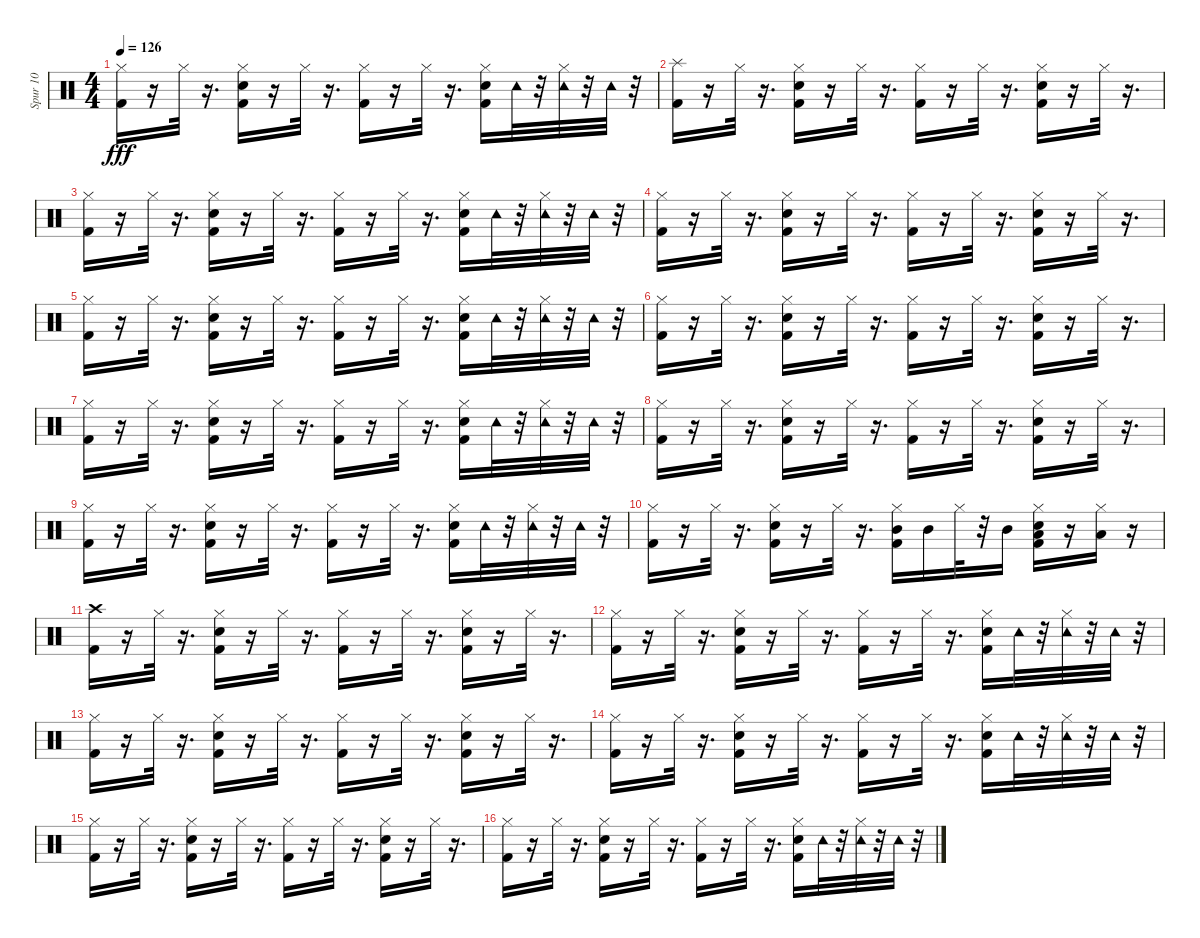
\track ("Spur 10" "Spur 10") {instrument percussion}
\staff {score}
\articulation defaults
\ts (4 4)
\tempo 126
\clef neutral
\ks c
("Hi-Hat (closed)" "Kick (hit) 2").16{dy fff} r.16 "Hi-Hat (closed)".32 r.16{d} ("Hi-Hat (closed)" "Snare (hit) 2" "Kick (hit) 2").16 r.16 "Hi-Hat (closed)".32 r.16{d} ("Hi-Hat (closed)" "Kick (hit) 2").16 r.16 "Hi-Hat (closed)".32 r.16{d} ("Hi-Hat (closed)" "Snare (hit) 2" "Kick (hit) 2").16 "Tambourine (hit)".32 r.32 ("Hi-Hat (closed)" "Tambourine (hit)").32 r.32 "Tambourine (hit)".32 r.32 |
("Splash (hit)" "Kick (hit) 2").16 r.16 "Hi-Hat (closed)".32 r.16{d} ("Hi-Hat (closed)" "Kick (hit) 2" "Snare (hit) 2").16 r.16 "Hi-Hat (closed)".32 r.16{d} ("Hi-Hat (closed)" "Kick (hit) 2").16 r.16 "Hi-Hat (closed)".32 r.16{d} ("Hi-Hat (closed)" "Snare (hit) 2" "Kick (hit) 2").16 r.16 "Hi-Hat (closed)".32 r.16{d} |
("Hi-Hat (closed)" "Kick (hit) 2").16 r.16 "Hi-Hat (closed)".32 r.16{d} ("Hi-Hat (closed)" "Snare (hit) 2" "Kick (hit) 2").16 r.16 "Hi-Hat (closed)".32 r.16{d} ("Hi-Hat (closed)" "Kick (hit) 2").16 r.16 "Hi-Hat (closed)".32 r.16{d} ("Hi-Hat (closed)" "Snare (hit) 2" "Kick (hit) 2").16 "Tambourine (hit)".32 r.32 ("Hi-Hat (closed)" "Tambourine (hit)").32 r.32 "Tambourine (hit)".32 r.32 |
("Hi-Hat (closed)" "Kick (hit) 2").16 r.16 "Hi-Hat (closed)".32 r.16{d} ("Hi-Hat (closed)" "Kick (hit) 2" "Snare (hit) 2").16 r.16 "Hi-Hat (closed)".32 r.16{d} ("Hi-Hat (closed)" "Kick (hit) 2").16 r.16 "Hi-Hat (closed)".32 r.16{d} ("Hi-Hat (closed)" "Snare (hit) 2" "Kick (hit) 2").16 r.16 "Hi-Hat (closed)".32 r.16{d} |
("Hi-Hat (closed)" "Kick (hit) 2").16 r.16 "Hi-Hat (closed)".32 r.16{d} ("Hi-Hat (closed)" "Snare (hit) 2" "Kick (hit) 2").16 r.16 "Hi-Hat (closed)".32 r.16{d} ("Hi-Hat (closed)" "Kick (hit) 2").16 r.16 "Hi-Hat (closed)".32 r.16{d} ("Hi-Hat (closed)" "Snare (hit) 2" "Kick (hit) 2").16 "Tambourine (hit)".32 r.32 ("Hi-Hat (closed)" "Tambourine (hit)").32 r.32 "Tambourine (hit)".32 r.32 |
("Hi-Hat (closed)" "Kick (hit) 2").16 r.16 "Hi-Hat (closed)".32 r.16{d} ("Hi-Hat (closed)" "Kick (hit) 2" "Snare (hit) 2").16 r.16 "Hi-Hat (closed)".32 r.16{d} ("Hi-Hat (closed)" "Kick (hit) 2").16 r.16 "Hi-Hat (closed)".32 r.16{d} ("Hi-Hat (closed)" "Snare (hit) 2" "Kick (hit) 2").16 r.16 "Hi-Hat (closed)".32 r.16{d} |
("Hi-Hat (closed)" "Kick (hit) 2").16 r.16 "Hi-Hat (closed)".32 r.16{d} ("Hi-Hat (closed)" "Snare (hit) 2" "Kick (hit) 2").16 r.16 "Hi-Hat (closed)".32 r.16{d} ("Hi-Hat (closed)" "Kick (hit) 2").16 r.16 "Hi-Hat (closed)".32 r.16{d} ("Hi-Hat (closed)" "Snare (hit) 2" "Kick (hit) 2").16 "Tambourine (hit)".32 r.32 ("Hi-Hat (closed)" "Tambourine (hit)").32 r.32 "Tambourine (hit)".32 r.32 |
("Hi-Hat (closed)" "Kick (hit) 2").16 r.16 "Hi-Hat (closed)".32 r.16{d} ("Hi-Hat (closed)" "Kick (hit) 2" "Snare (hit) 2").16 r.16 "Hi-Hat (closed)".32 r.16{d} ("Hi-Hat (closed)" "Kick (hit) 2").16 r.16 "Hi-Hat (closed)".32 r.16{d} ("Hi-Hat (closed)" "Snare (hit) 2" "Kick (hit) 2").16 r.16 "Hi-Hat (closed)".32 r.16{d} |
("Hi-Hat (closed)" "Kick (hit) 2").16 r.16 "Hi-Hat (closed)".32 r.16{d} ("Hi-Hat (closed)" "Snare (hit) 2" "Kick (hit) 2").16 r.16 "Hi-Hat (closed)".32 r.16{d} ("Hi-Hat (closed)" "Kick (hit) 2").16 r.16 "Hi-Hat (closed)".32 r.16{d} ("Hi-Hat (closed)" "Snare (hit) 2" "Kick (hit) 2").16 "Tambourine (hit)".32 r.32 ("Hi-Hat (closed)" "Tambourine (hit)").32 r.32 "Tambourine (hit)".32 r.32 |
("Hi-Hat (closed)" "Kick (hit) 2").16 r.16 "Hi-Hat (closed)".32 r.16{d} ("Hi-Hat (closed)" "Kick (hit) 2" "Snare (hit) 2").16 r.16 "Hi-Hat (closed)".32 r.16{d} ("Hi-Hat (closed)" "Mid Tom (hit)" "Kick (hit) 2").16 "Mid Tom (hit)".16 "Hi-Hat (closed)".32 r.32 "Mid Tom (hit)".16 ("Hi-Hat (closed)" "Low Tom (hit)" "Snare (hit) 2" "Kick (hit) 2").16 r.16 ("Hi-Hat (closed)" "Low Tom (hit)").16 r.16 |
("Crash high (hit)" "Kick (hit) 2").16 r.16 "Hi-Hat (closed)".32 r.16{d} ("Hi-Hat (closed)" "Kick (hit) 2" "Snare (hit) 2").16 r.16 "Hi-Hat (closed)".32 r.16{d} ("Hi-Hat (closed)" "Kick (hit) 2").16 r.16 "Hi-Hat (closed)".32 r.16{d} ("Hi-Hat (closed)" "Snare (hit) 2" "Kick (hit) 2").16 r.16 "Hi-Hat (closed)".32 r.16{d} |
("Hi-Hat (closed)" "Kick (hit) 2").16 r.16 "Hi-Hat (closed)".32 r.16{d} ("Hi-Hat (closed)" "Snare (hit) 2" "Kick (hit) 2").16 r.16 "Hi-Hat (closed)".32 r.16{d} ("Hi-Hat (closed)" "Kick (hit) 2").16 r.16 "Hi-Hat (closed)".32 r.16{d} ("Hi-Hat (closed)" "Snare (hit) 2" "Kick (hit) 2").16 "Tambourine (hit)".32 r.32 ("Hi-Hat (closed)" "Tambourine (hit)").32 r.32 "Tambourine (hit)".32 r.32 |
("Hi-Hat (closed)" "Kick (hit) 2").16 r.16 "Hi-Hat (closed)".32 r.16{d} ("Hi-Hat (closed)" "Kick (hit) 2" "Snare (hit) 2").16 r.16 "Hi-Hat (closed)".32 r.16{d} ("Hi-Hat (closed)" "Kick (hit) 2").16 r.16 "Hi-Hat (closed)".32 r.16{d} ("Hi-Hat (closed)" "Snare (hit) 2" "Kick (hit) 2").16 r.16 "Hi-Hat (closed)".32 r.16{d} |
("Hi-Hat (closed)" "Kick (hit) 2").16 r.16 "Hi-Hat (closed)".32 r.16{d} ("Hi-Hat (closed)" "Snare (hit) 2" "Kick (hit) 2").16 r.16 "Hi-Hat (closed)".32 r.16{d} ("Hi-Hat (closed)" "Kick (hit) 2").16 r.16 "Hi-Hat (closed)".32 r.16{d} ("Hi-Hat (closed)" "Snare (hit) 2" "Kick (hit) 2").16 "Tambourine (hit)".32 r.32 ("Hi-Hat (closed)" "Tambourine (hit)").32 r.32 "Tambourine (hit)".32 r.32 |
("Hi-Hat (closed)" "Kick (hit) 2").16 r.16 "Hi-Hat (closed)".32 r.16{d} ("Hi-Hat (closed)" "Kick (hit) 2" "Snare (hit) 2").16 r.16 "Hi-Hat (closed)".32 r.16{d} ("Hi-Hat (closed)" "Kick (hit) 2").16 r.16 "Hi-Hat (closed)".32 r.16{d} ("Hi-Hat (closed)" "Snare (hit) 2" "Kick (hit) 2").16 r.16 "Hi-Hat (closed)".32 r.16{d} |
("Hi-Hat (closed)" "Kick (hit) 2").16 r.16 "Hi-Hat (closed)".32 r.16{d} ("Hi-Hat (closed)" "Snare (hit) 2" "Kick (hit) 2").16 r.16 "Hi-Hat (closed)".32 r.16{d} ("Hi-Hat (closed)" "Kick (hit) 2").16 r.16 "Hi-Hat (closed)".32 r.16{d} ("Hi-Hat (closed)" "Snare (hit) 2" "Kick (hit) 2").16 "Tambourine (hit)".32 r.32 ("Hi-Hat (closed)" "Tambourine (hit)").32 r.32 "Tambourine (hit)".32 r.32
